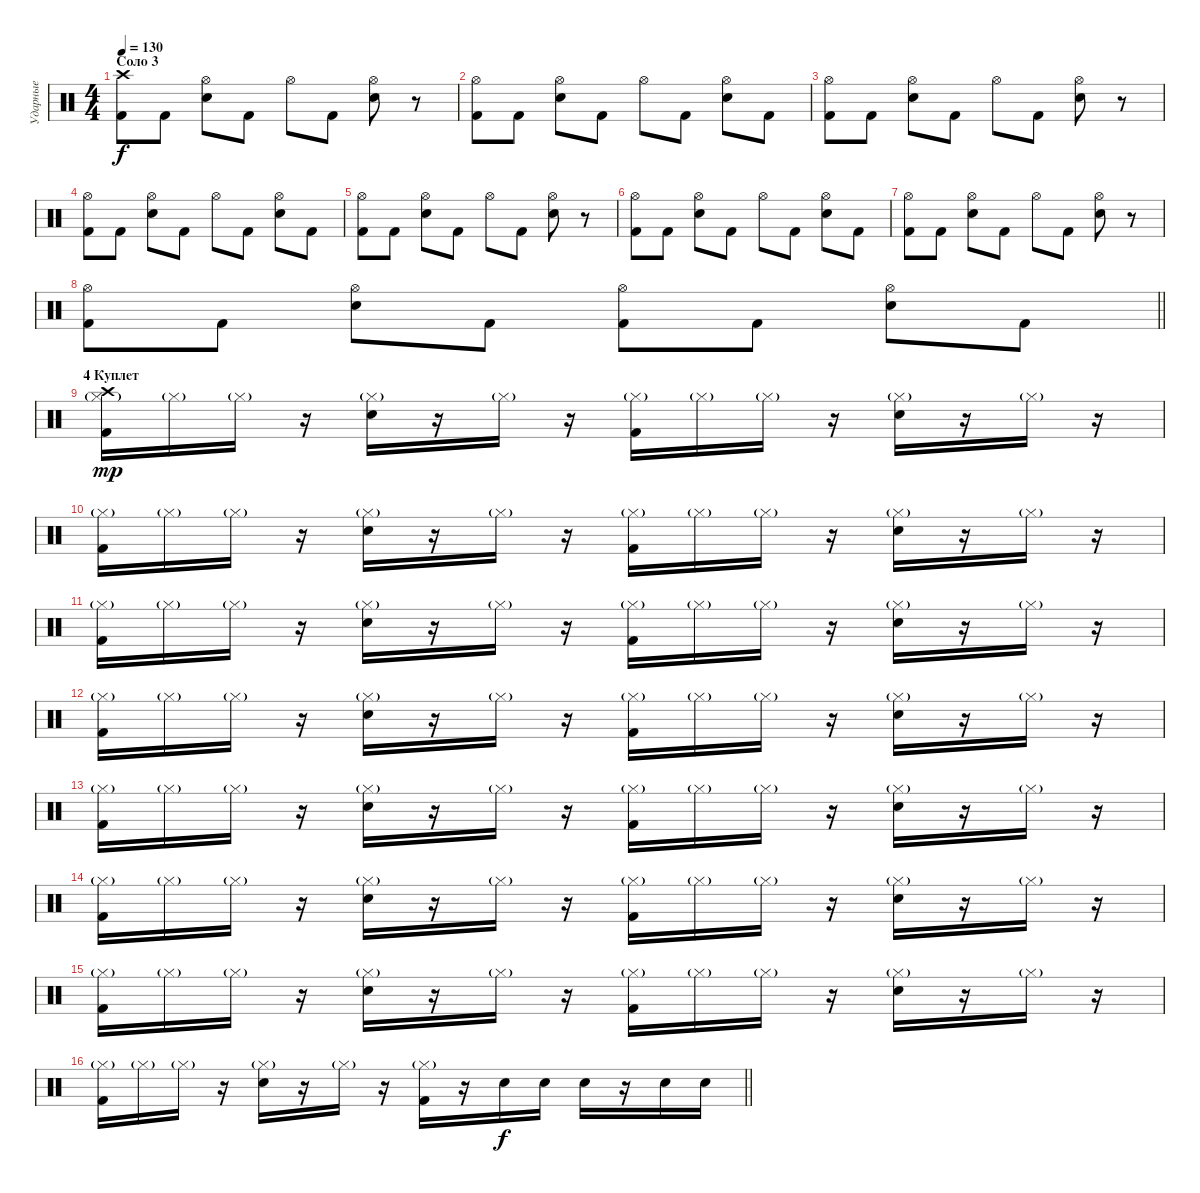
\track ("Ударные" "Ударные") {instrument percussion}
\staff {score}
\articulation defaults
\ts (4 4)
\section ("" "Соло 3")
\tempo 130
\clef neutral
\ks c
("Crash high (hit)" "Kick (hit) 2").8{dy f} "Kick (hit) 2".8 ("Hi-Hat (open)" "Snare (hit) 2").8 "Kick (hit) 2".8 "Hi-Hat (open)".8 "Kick (hit) 2".8 ("Hi-Hat (open)" "Snare (hit) 2").8 r.8 |
("Hi-Hat (open)" "Kick (hit) 2").8 "Kick (hit) 2".8 ("Hi-Hat (open)" "Snare (hit) 2").8 "Kick (hit) 2".8 "Hi-Hat (open)".8 "Kick (hit) 2".8 ("Hi-Hat (open)" "Snare (hit) 2").8 "Kick (hit) 2".8 |
("Hi-Hat (open)" "Kick (hit) 2").8 "Kick (hit) 2".8 ("Hi-Hat (open)" "Snare (hit) 2").8 "Kick (hit) 2".8 "Hi-Hat (open)".8 "Kick (hit) 2".8 ("Hi-Hat (open)" "Snare (hit) 2").8 r.8 |
("Hi-Hat (open)" "Kick (hit) 2").8 "Kick (hit) 2".8 ("Hi-Hat (open)" "Snare (hit) 2").8 "Kick (hit) 2".8 "Hi-Hat (open)".8 "Kick (hit) 2".8 ("Hi-Hat (open)" "Snare (hit) 2").8 "Kick (hit) 2".8 |
("Hi-Hat (open)" "Kick (hit) 2").8 "Kick (hit) 2".8 ("Hi-Hat (open)" "Snare (hit) 2").8 "Kick (hit) 2".8 "Hi-Hat (open)".8 "Kick (hit) 2".8 ("Hi-Hat (open)" "Snare (hit) 2").8 r.8 |
("Hi-Hat (open)" "Kick (hit) 2").8 "Kick (hit) 2".8 ("Hi-Hat (open)" "Snare (hit) 2").8 "Kick (hit) 2".8 "Hi-Hat (open)".8 "Kick (hit) 2".8 ("Hi-Hat (open)" "Snare (hit) 2").8 "Kick (hit) 2".8 |
("Hi-Hat (open)" "Kick (hit) 2").8 "Kick (hit) 2".8 ("Hi-Hat (open)" "Snare (hit) 2").8 "Kick (hit) 2".8 "Hi-Hat (open)".8 "Kick (hit) 2".8 ("Hi-Hat (open)" "Snare (hit) 2").8 r.8 |
\barLineRight lightlight
("Hi-Hat (open)" "Kick (hit) 2").8 "Kick (hit) 2".8 ("Hi-Hat (open)" "Snare (hit) 2").8 "Kick (hit) 2".8 ("Hi-Hat (open)" "Kick (hit) 2").8 "Kick (hit) 2".8 ("Hi-Hat (open)" "Snare (hit) 2").8 "Kick (hit) 2".8 |
\section ("" "4 Куплет")
("Crash high (hit)" "Hi-Hat (closed)"{g} "Kick (hit) 2").16{dy mp} "Hi-Hat (closed)"{g}.16 "Hi-Hat (closed)"{g}.16 r.16 ("Hi-Hat (closed)"{g} "Snare (hit) 2").16 r.16 "Hi-Hat (closed)"{g}.16 r.16 ("Hi-Hat (closed)"{g} "Kick (hit) 2").16 "Hi-Hat (closed)"{g}.16 "Hi-Hat (closed)"{g}.16 r.16 ("Hi-Hat (closed)"{g} "Snare (hit) 2").16 r.16 "Hi-Hat (closed)"{g}.16 r.16 |
("Hi-Hat (closed)"{g} "Kick (hit) 2").16 "Hi-Hat (closed)"{g}.16 "Hi-Hat (closed)"{g}.16 r.16 ("Hi-Hat (closed)"{g} "Snare (hit) 2").16 r.16 "Hi-Hat (closed)"{g}.16 r.16 ("Hi-Hat (closed)"{g} "Kick (hit) 2").16 "Hi-Hat (closed)"{g}.16 "Hi-Hat (closed)"{g}.16 r.16 ("Hi-Hat (closed)"{g} "Snare (hit) 2").16 r.16 "Hi-Hat (closed)"{g}.16 r.16 |
("Hi-Hat (closed)"{g} "Kick (hit) 2").16 "Hi-Hat (closed)"{g}.16 "Hi-Hat (closed)"{g}.16 r.16 ("Hi-Hat (closed)"{g} "Snare (hit) 2").16 r.16 "Hi-Hat (closed)"{g}.16 r.16 ("Hi-Hat (closed)"{g} "Kick (hit) 2").16 "Hi-Hat (closed)"{g}.16 "Hi-Hat (closed)"{g}.16 r.16 ("Hi-Hat (closed)"{g} "Snare (hit) 2").16 r.16 "Hi-Hat (closed)"{g}.16 r.16 |
("Hi-Hat (closed)"{g} "Kick (hit) 2").16 "Hi-Hat (closed)"{g}.16 "Hi-Hat (closed)"{g}.16 r.16 ("Hi-Hat (closed)"{g} "Snare (hit) 2").16 r.16 "Hi-Hat (closed)"{g}.16 r.16 ("Hi-Hat (closed)"{g} "Kick (hit) 2").16 "Hi-Hat (closed)"{g}.16 "Hi-Hat (closed)"{g}.16 r.16 ("Hi-Hat (closed)"{g} "Snare (hit) 2").16 r.16 "Hi-Hat (closed)"{g}.16 r.16 |
("Hi-Hat (closed)"{g} "Kick (hit) 2").16 "Hi-Hat (closed)"{g}.16 "Hi-Hat (closed)"{g}.16 r.16 ("Hi-Hat (closed)"{g} "Snare (hit) 2").16 r.16 "Hi-Hat (closed)"{g}.16 r.16 ("Hi-Hat (closed)"{g} "Kick (hit) 2").16 "Hi-Hat (closed)"{g}.16 "Hi-Hat (closed)"{g}.16 r.16 ("Hi-Hat (closed)"{g} "Snare (hit) 2").16 r.16 "Hi-Hat (closed)"{g}.16 r.16 |
("Hi-Hat (closed)"{g} "Kick (hit) 2").16 "Hi-Hat (closed)"{g}.16 "Hi-Hat (closed)"{g}.16 r.16 ("Hi-Hat (closed)"{g} "Snare (hit) 2").16 r.16 "Hi-Hat (closed)"{g}.16 r.16 ("Hi-Hat (closed)"{g} "Kick (hit) 2").16 "Hi-Hat (closed)"{g}.16 "Hi-Hat (closed)"{g}.16 r.16 ("Hi-Hat (closed)"{g} "Snare (hit) 2").16 r.16 "Hi-Hat (closed)"{g}.16 r.16 |
("Hi-Hat (closed)"{g} "Kick (hit) 2").16 "Hi-Hat (closed)"{g}.16 "Hi-Hat (closed)"{g}.16 r.16 ("Hi-Hat (closed)"{g} "Snare (hit) 2").16 r.16 "Hi-Hat (closed)"{g}.16 r.16 ("Hi-Hat (closed)"{g} "Kick (hit) 2").16 "Hi-Hat (closed)"{g}.16 "Hi-Hat (closed)"{g}.16 r.16 ("Hi-Hat (closed)"{g} "Snare (hit) 2").16 r.16 "Hi-Hat (closed)"{g}.16 r.16 |
\barLineRight lightlight
("Hi-Hat (closed)"{g} "Kick (hit) 2").16 "Hi-Hat (closed)"{g}.16 "Hi-Hat (closed)"{g}.16 r.16 ("Hi-Hat (closed)"{g} "Snare (hit) 2").16 r.16 "Hi-Hat (closed)"{g}.16 r.16 ("Hi-Hat (closed)"{g} "Kick (hit) 2").16 r.16 "Snare (hit) 2".16{dy f} "Snare (hit) 2".16 "Snare (hit) 2".16 r.16 "Snare (hit) 2".16 "Snare (hit) 2".16
